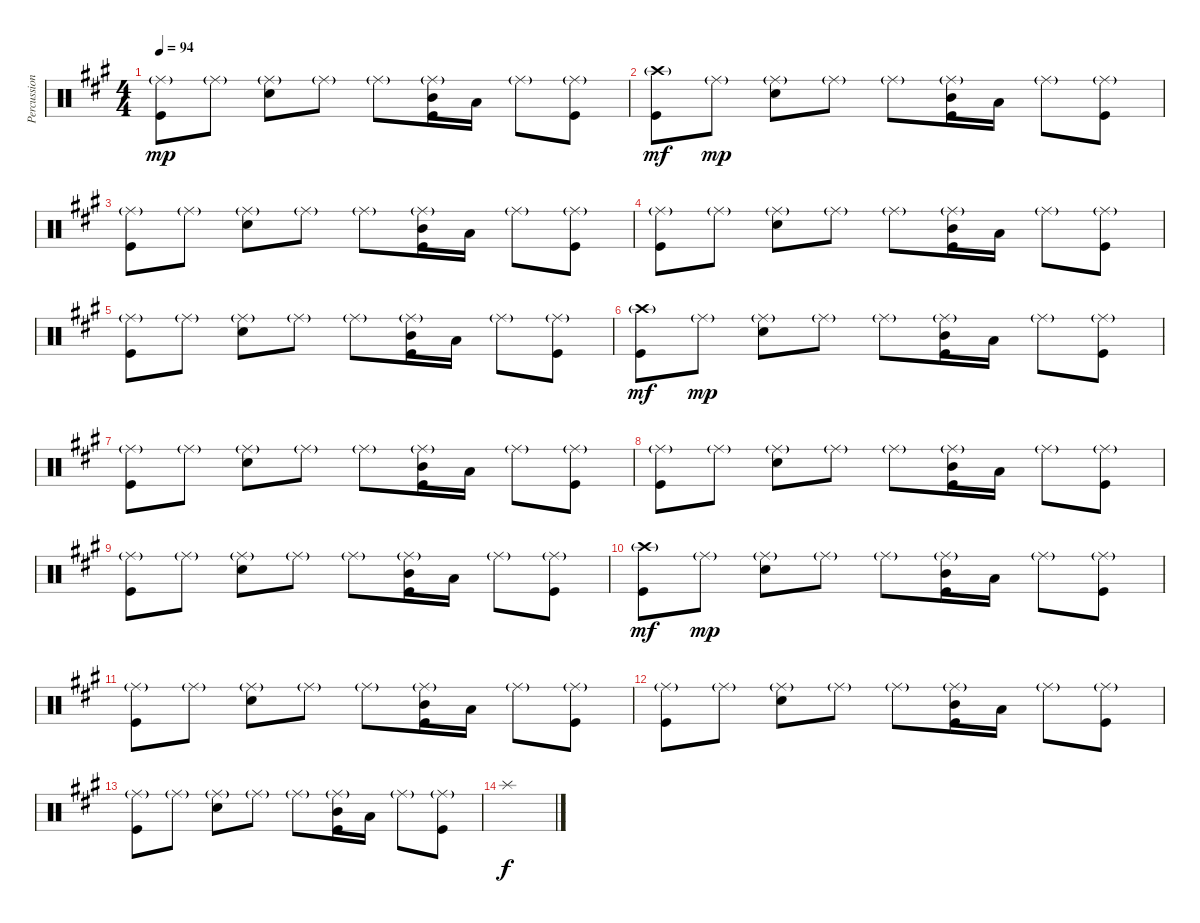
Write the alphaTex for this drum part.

\track ("Percussion" "Percussion") {instrument percussion}
\staff {score}
\articulation defaults
\ts (4 4)
\tempo 94
\clef neutral
\ks a
("Ride (middle)"{g} "Kick (hit)").8{dy mp} "Ride (middle)"{g}.8 ("Ride (middle)"{g} "Electric Snare (hit)").8 "Ride (middle)"{g}.8 "Ride (middle)"{g}.8 ("Ride (middle)"{g} "Mid Tom (hit)" "Kick (hit)").16 "Low Tom (hit)".16 "Ride (middle)"{g}.8 ("Ride (middle)"{g} "Kick (hit)").8 |
("Crash high (hit)"{g} "Kick (hit)").8{dy mf} "Ride (middle)"{g}.8{dy mp} ("Ride (middle)"{g} "Electric Snare (hit)").8 "Ride (middle)"{g}.8 "Ride (middle)"{g}.8 ("Ride (middle)"{g} "Mid Tom (hit)" "Kick (hit)").16 "Low Tom (hit)".16 "Ride (middle)"{g}.8 ("Ride (middle)"{g} "Kick (hit)").8 |
("Ride (middle)"{g} "Kick (hit)").8 "Ride (middle)"{g}.8 ("Ride (middle)"{g} "Electric Snare (hit)").8 "Ride (middle)"{g}.8 "Ride (middle)"{g}.8 ("Ride (middle)"{g} "Mid Tom (hit)" "Kick (hit)").16 "Low Tom (hit)".16 "Ride (middle)"{g}.8 ("Ride (middle)"{g} "Kick (hit)").8 |
("Ride (middle)"{g} "Kick (hit)").8 "Ride (middle)"{g}.8 ("Ride (middle)"{g} "Electric Snare (hit)").8 "Ride (middle)"{g}.8 "Ride (middle)"{g}.8 ("Ride (middle)"{g} "Mid Tom (hit)" "Kick (hit)").16 "Low Tom (hit)".16 "Ride (middle)"{g}.8 ("Ride (middle)"{g} "Kick (hit)").8 |
("Ride (middle)"{g} "Kick (hit)").8 "Ride (middle)"{g}.8 ("Ride (middle)"{g} "Electric Snare (hit)").8 "Ride (middle)"{g}.8 "Ride (middle)"{g}.8 ("Ride (middle)"{g} "Mid Tom (hit)" "Kick (hit)").16 "Low Tom (hit)".16 "Ride (middle)"{g}.8 ("Ride (middle)"{g} "Kick (hit)").8 |
("Crash high (hit)"{g} "Kick (hit)").8{dy mf} "Ride (middle)"{g}.8{dy mp} ("Ride (middle)"{g} "Electric Snare (hit)").8 "Ride (middle)"{g}.8 "Ride (middle)"{g}.8 ("Ride (middle)"{g} "Mid Tom (hit)" "Kick (hit)").16 "Low Tom (hit)".16 "Ride (middle)"{g}.8 ("Ride (middle)"{g} "Kick (hit)").8 |
("Ride (middle)"{g} "Kick (hit)").8 "Ride (middle)"{g}.8 ("Ride (middle)"{g} "Electric Snare (hit)").8 "Ride (middle)"{g}.8 "Ride (middle)"{g}.8 ("Ride (middle)"{g} "Mid Tom (hit)" "Kick (hit)").16 "Low Tom (hit)".16 "Ride (middle)"{g}.8 ("Ride (middle)"{g} "Kick (hit)").8 |
("Ride (middle)"{g} "Kick (hit)").8 "Ride (middle)"{g}.8 ("Ride (middle)"{g} "Electric Snare (hit)").8 "Ride (middle)"{g}.8 "Ride (middle)"{g}.8 ("Ride (middle)"{g} "Mid Tom (hit)" "Kick (hit)").16 "Low Tom (hit)".16 "Ride (middle)"{g}.8 ("Ride (middle)"{g} "Kick (hit)").8 |
("Ride (middle)"{g} "Kick (hit)").8 "Ride (middle)"{g}.8 ("Ride (middle)"{g} "Electric Snare (hit)").8 "Ride (middle)"{g}.8 "Ride (middle)"{g}.8 ("Ride (middle)"{g} "Mid Tom (hit)" "Kick (hit)").16 "Low Tom (hit)".16 "Ride (middle)"{g}.8 ("Ride (middle)"{g} "Kick (hit)").8 |
("Crash high (hit)"{g} "Kick (hit)").8{dy mf} "Ride (middle)"{g}.8{dy mp} ("Ride (middle)"{g} "Electric Snare (hit)").8 "Ride (middle)"{g}.8 "Ride (middle)"{g}.8 ("Ride (middle)"{g} "Mid Tom (hit)" "Kick (hit)").16 "Low Tom (hit)".16 "Ride (middle)"{g}.8 ("Ride (middle)"{g} "Kick (hit)").8 |
("Ride (middle)"{g} "Kick (hit)").8 "Ride (middle)"{g}.8 ("Ride (middle)"{g} "Electric Snare (hit)").8 "Ride (middle)"{g}.8 "Ride (middle)"{g}.8 ("Ride (middle)"{g} "Mid Tom (hit)" "Kick (hit)").16 "Low Tom (hit)".16 "Ride (middle)"{g}.8 ("Ride (middle)"{g} "Kick (hit)").8 |
("Ride (middle)"{g} "Kick (hit)").8 "Ride (middle)"{g}.8 ("Ride (middle)"{g} "Electric Snare (hit)").8 "Ride (middle)"{g}.8 "Ride (middle)"{g}.8 ("Ride (middle)"{g} "Mid Tom (hit)" "Kick (hit)").16 "Low Tom (hit)".16 "Ride (middle)"{g}.8 ("Ride (middle)"{g} "Kick (hit)").8 |
("Ride (middle)"{g} "Kick (hit)").8 "Ride (middle)"{g}.8 ("Ride (middle)"{g} "Electric Snare (hit)").8 "Ride (middle)"{g}.8 "Ride (middle)"{g}.8 ("Ride (middle)"{g} "Mid Tom (hit)" "Kick (hit)").16 "Low Tom (hit)".16 "Ride (middle)"{g}.8 ("Ride (middle)"{g} "Kick (hit)").8 |
"Splash (hit)".1{dy f}
